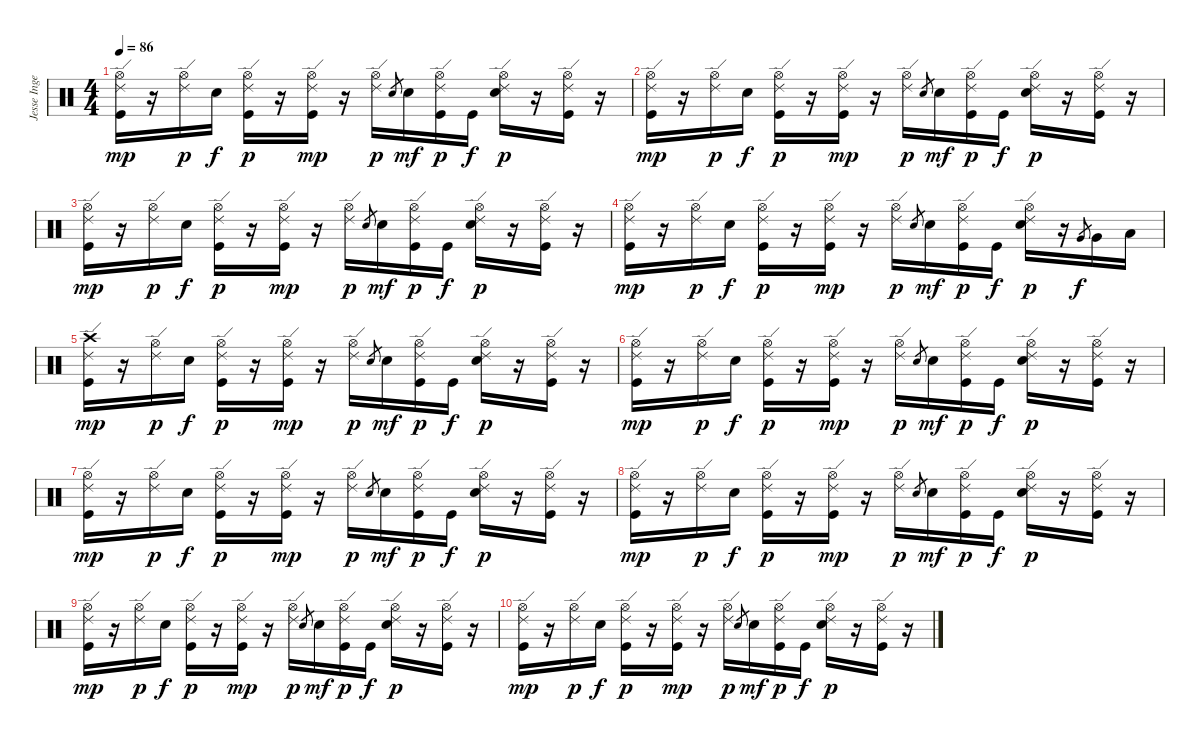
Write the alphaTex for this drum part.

\track ("Jesse Ingelevics" "Jesse Inge") {instrument percussion}
\staff {score}
\articulation defaults
\ts (4 4)
\tempo 86
\clef neutral
\ks c
("Hi-Hat (open)" "Ride (edge) 2" "Kick (hit)").16{dy mp volume 10} r.16 ("Hi-Hat (open)" "Ride (edge) 2").16{dy p} "Snare (hit) 2".16{dy f} ("Hi-Hat (open)" "Ride (edge) 2" "Kick (hit)").16{dy p} r.16 ("Hi-Hat (open)" "Ride (edge) 2" "Kick (hit)").16{dy mp} r.16 ("Hi-Hat (open)" "Ride (edge) 2").16{dy p} "Snare (hit) 2".8{gr} "Snare (hit) 2".16{dy mf} ("Hi-Hat (open)" "Ride (edge) 2" "Kick (hit)").16{dy p} "Kick (hit)".16{dy f} ("Hi-Hat (open)" "Ride (edge) 2" "Snare (hit) 2").16{dy p} r.16 ("Hi-Hat (open)" "Ride (edge) 2" "Kick (hit)").16 r.16 |
("Hi-Hat (open)" "Ride (edge) 2" "Kick (hit)").16{dy mp} r.16 ("Hi-Hat (open)" "Ride (edge) 2").16{dy p} "Snare (hit) 2".16{dy f} ("Hi-Hat (open)" "Ride (edge) 2" "Kick (hit)").16{dy p} r.16 ("Hi-Hat (open)" "Ride (edge) 2" "Kick (hit)").16{dy mp} r.16 ("Hi-Hat (open)" "Ride (edge) 2").16{dy p} "Snare (hit) 2".8{gr} "Snare (hit) 2".16{dy mf} ("Hi-Hat (open)" "Ride (edge) 2" "Kick (hit)").16{dy p} "Kick (hit)".16{dy f} ("Hi-Hat (open)" "Ride (edge) 2" "Snare (hit) 2").16{dy p} r.16 ("Hi-Hat (open)" "Ride (edge) 2" "Kick (hit)").16 r.16 |
("Hi-Hat (open)" "Ride (edge) 2" "Kick (hit)").16{dy mp} r.16 ("Hi-Hat (open)" "Ride (edge) 2").16{dy p} "Snare (hit) 2".16{dy f} ("Hi-Hat (open)" "Ride (edge) 2" "Kick (hit)").16{dy p} r.16 ("Hi-Hat (open)" "Ride (edge) 2" "Kick (hit)").16{dy mp} r.16 ("Hi-Hat (open)" "Ride (edge) 2").16{dy p} "Snare (hit) 2".8{gr} "Snare (hit) 2".16{dy mf} ("Hi-Hat (open)" "Ride (edge) 2" "Kick (hit)").16{dy p} "Kick (hit)".16{dy f} ("Hi-Hat (open)" "Ride (edge) 2" "Snare (hit) 2").16{dy p} r.16 ("Hi-Hat (open)" "Ride (edge) 2" "Kick (hit)").16 r.16 |
("Hi-Hat (open)" "Ride (edge) 2" "Kick (hit)").16{dy mp} r.16 ("Hi-Hat (open)" "Ride (edge) 2").16{dy p} "Snare (hit) 2".16{dy f} ("Hi-Hat (open)" "Ride (edge) 2" "Kick (hit)").16{dy p} r.16 ("Hi-Hat (open)" "Ride (edge) 2" "Kick (hit)").16{dy mp} r.16 ("Hi-Hat (open)" "Ride (edge) 2").16{dy p} "Snare (hit) 2".8{gr} "Snare (hit) 2".16{dy mf} ("Hi-Hat (open)" "Ride (edge) 2" "Kick (hit)").16{dy p} "Kick (hit)".16{dy f} ("Hi-Hat (open)" "Ride (edge) 2" "Snare (hit) 2").16{dy p} r.16 "Very Low Tom (hit)".8{gr dy f} "Very Low Tom (hit)".16 "Low Tom (hit)".16 |
("Crash high (hit)" "Ride (edge) 2" "Kick (hit)").16{dy mp} r.16 ("Hi-Hat (open)" "Ride (edge) 2").16{dy p volume 10} "Snare (hit) 2".16{dy f} ("Hi-Hat (open)" "Ride (edge) 2" "Kick (hit)").16{dy p} r.16 ("Hi-Hat (open)" "Ride (edge) 2" "Kick (hit)").16{dy mp} r.16 ("Hi-Hat (open)" "Ride (edge) 2").16{dy p} "Snare (hit) 2".8{gr} "Snare (hit) 2".16{dy mf} ("Hi-Hat (open)" "Ride (edge) 2" "Kick (hit)").16{dy p} "Kick (hit)".16{dy f} ("Hi-Hat (open)" "Ride (edge) 2" "Snare (hit) 2").16{dy p} r.16 ("Hi-Hat (open)" "Ride (edge) 2" "Kick (hit)").16 r.16 |
("Hi-Hat (open)" "Ride (edge) 2" "Kick (hit)").16{dy mp volume 0} r.16 ("Hi-Hat (open)" "Ride (edge) 2").16{dy p} "Snare (hit) 2".16{dy f} ("Hi-Hat (open)" "Ride (edge) 2" "Kick (hit)").16{dy p} r.16 ("Hi-Hat (open)" "Ride (edge) 2" "Kick (hit)").16{dy mp} r.16 ("Hi-Hat (open)" "Ride (edge) 2").16{dy p} "Snare (hit) 2".8{gr} "Snare (hit) 2".16{dy mf} ("Hi-Hat (open)" "Ride (edge) 2" "Kick (hit)").16{dy p} "Kick (hit)".16{dy f} ("Hi-Hat (open)" "Ride (edge) 2" "Snare (hit) 2").16{dy p} r.16 ("Hi-Hat (open)" "Ride (edge) 2" "Kick (hit)").16 r.16 |
("Hi-Hat (open)" "Ride (edge) 2" "Kick (hit)").16{dy mp} r.16 ("Hi-Hat (open)" "Ride (edge) 2").16{dy p} "Snare (hit) 2".16{dy f} ("Hi-Hat (open)" "Ride (edge) 2" "Kick (hit)").16{dy p} r.16 ("Hi-Hat (open)" "Ride (edge) 2" "Kick (hit)").16{dy mp} r.16 ("Hi-Hat (open)" "Ride (edge) 2").16{dy p} "Snare (hit) 2".8{gr} "Snare (hit) 2".16{dy mf} ("Hi-Hat (open)" "Ride (edge) 2" "Kick (hit)").16{dy p} "Kick (hit)".16{dy f} ("Hi-Hat (open)" "Ride (edge) 2" "Snare (hit) 2").16{dy p} r.16 ("Hi-Hat (open)" "Ride (edge) 2" "Kick (hit)").16 r.16 |
("Hi-Hat (open)" "Ride (edge) 2" "Kick (hit)").16{dy mp} r.16 ("Hi-Hat (open)" "Ride (edge) 2").16{dy p} "Snare (hit) 2".16{dy f} ("Hi-Hat (open)" "Ride (edge) 2" "Kick (hit)").16{dy p} r.16 ("Hi-Hat (open)" "Ride (edge) 2" "Kick (hit)").16{dy mp} r.16 ("Hi-Hat (open)" "Ride (edge) 2").16{dy p} "Snare (hit) 2".8{gr} "Snare (hit) 2".16{dy mf} ("Hi-Hat (open)" "Ride (edge) 2" "Kick (hit)").16{dy p} "Kick (hit)".16{dy f} ("Hi-Hat (open)" "Ride (edge) 2" "Snare (hit) 2").16{dy p} r.16 ("Hi-Hat (open)" "Ride (edge) 2" "Kick (hit)").16 r.16 |
("Hi-Hat (open)" "Ride (edge) 2" "Kick (hit)").16{dy mp} r.16 ("Hi-Hat (open)" "Ride (edge) 2").16{dy p} "Snare (hit) 2".16{dy f} ("Hi-Hat (open)" "Ride (edge) 2" "Kick (hit)").16{dy p} r.16 ("Hi-Hat (open)" "Ride (edge) 2" "Kick (hit)").16{dy mp} r.16 ("Hi-Hat (open)" "Ride (edge) 2").16{dy p} "Snare (hit) 2".8{gr} "Snare (hit) 2".16{dy mf} ("Hi-Hat (open)" "Ride (edge) 2" "Kick (hit)").16{dy p} "Kick (hit)".16{dy f} ("Hi-Hat (open)" "Ride (edge) 2" "Snare (hit) 2").16{dy p} r.16 ("Hi-Hat (open)" "Ride (edge) 2" "Kick (hit)").16 r.16 |
("Hi-Hat (open)" "Ride (edge) 2" "Kick (hit)").16{dy mp} r.16 ("Hi-Hat (open)" "Ride (edge) 2").16{dy p} "Snare (hit) 2".16{dy f} ("Hi-Hat (open)" "Ride (edge) 2" "Kick (hit)").16{dy p} r.16 ("Hi-Hat (open)" "Ride (edge) 2" "Kick (hit)").16{dy mp} r.16 ("Hi-Hat (open)" "Ride (edge) 2").16{dy p} "Snare (hit) 2".8{gr} "Snare (hit) 2".16{dy mf} ("Hi-Hat (open)" "Ride (edge) 2" "Kick (hit)").16{dy p} "Kick (hit)".16{dy f} ("Hi-Hat (open)" "Ride (edge) 2" "Snare (hit) 2").16{dy p} r.16 ("Hi-Hat (open)" "Ride (edge) 2" "Kick (hit)").16 r.16
